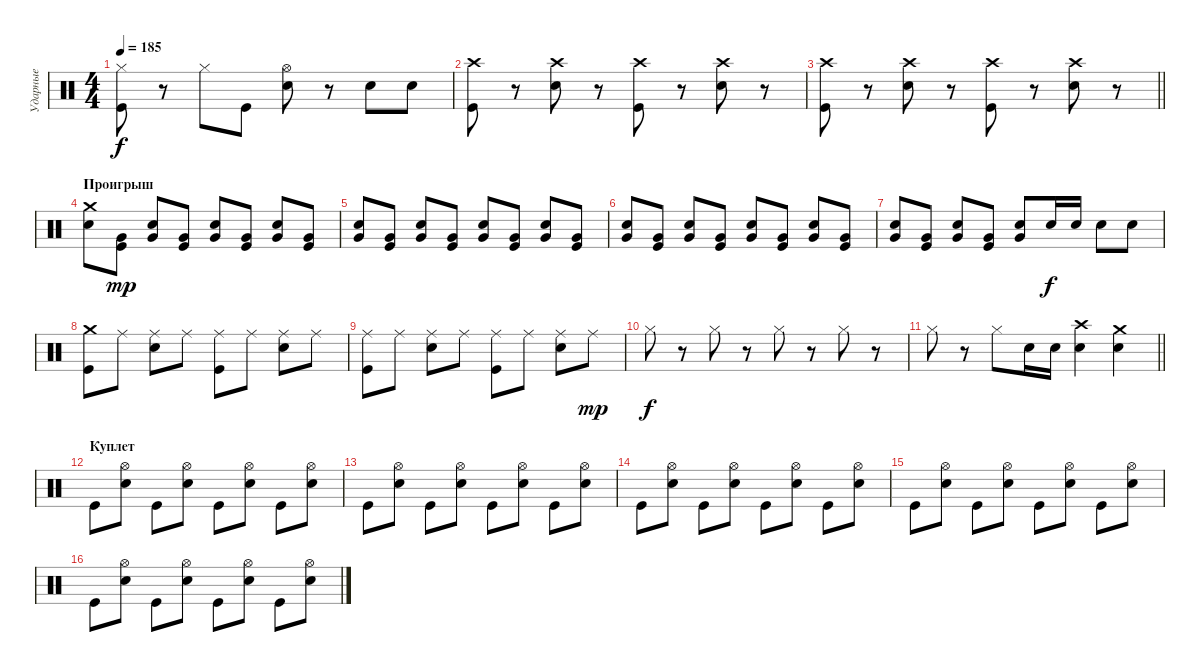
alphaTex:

\track ("Ударные" "Ударные") {instrument percussion}
\staff {score}
\articulation defaults
\ts (4 4)
\tempo 185
\clef neutral
\ks c
("Hi-Hat (closed)" "Kick (hit)").8{dy f} r.8 "Hi-Hat (closed)".8 "Kick (hit)".8 ("Hi-Hat (open)" "Electric Snare (hit)").8 r.8 "Electric Snare (hit)".8 "Electric Snare (hit)".8 |
("Crash high (hit)" "Kick (hit)").8 r.8 ("Crash high (hit)" "Electric Snare (hit)").8 r.8 ("Crash high (hit)" "Kick (hit)").8 r.8 ("Crash high (hit)" "Electric Snare (hit)").8 r.8 |
\barLineRight lightlight
("Crash high (hit)" "Kick (hit)").8 r.8 ("Crash high (hit)" "Electric Snare (hit)").8 r.8 ("Crash high (hit)" "Kick (hit)").8 r.8 ("Crash high (hit)" "Electric Snare (hit)").8 r.8 |
\section ("" "Проигрыш")
("Crash medium (hit)" "Electric Snare (hit)").8 ("Very Low Tom (hit)" "Kick (hit)").8{dy mp} ("Very Low Tom (hit)" "Electric Snare (hit)").8 ("Very Low Tom (hit)" "Kick (hit)").8 ("Very Low Tom (hit)" "Electric Snare (hit)").8 ("Very Low Tom (hit)" "Kick (hit)").8 ("Very Low Tom (hit)" "Electric Snare (hit)").8 ("Very Low Tom (hit)" "Kick (hit)").8 |
("Very Low Tom (hit)" "Electric Snare (hit)").8 ("Very Low Tom (hit)" "Kick (hit)").8 ("Very Low Tom (hit)" "Electric Snare (hit)").8 ("Very Low Tom (hit)" "Kick (hit)").8 ("Very Low Tom (hit)" "Electric Snare (hit)").8 ("Very Low Tom (hit)" "Kick (hit)").8 ("Very Low Tom (hit)" "Electric Snare (hit)").8 ("Very Low Tom (hit)" "Kick (hit)").8 |
("Very Low Tom (hit)" "Electric Snare (hit)").8 ("Very Low Tom (hit)" "Kick (hit)").8 ("Very Low Tom (hit)" "Electric Snare (hit)").8 ("Very Low Tom (hit)" "Kick (hit)").8 ("Very Low Tom (hit)" "Electric Snare (hit)").8 ("Very Low Tom (hit)" "Kick (hit)").8 ("Very Low Tom (hit)" "Electric Snare (hit)").8 ("Very Low Tom (hit)" "Kick (hit)").8 |
("Very Low Tom (hit)" "Electric Snare (hit)").8 ("Very Low Tom (hit)" "Kick (hit)").8 ("Very Low Tom (hit)" "Electric Snare (hit)").8 ("Very Low Tom (hit)" "Kick (hit)").8 ("Very Low Tom (hit)" "Electric Snare (hit)").8 "Electric Snare (hit)".16{dy f} "Electric Snare (hit)".16 "Electric Snare (hit)".8 "Electric Snare (hit)".8 |
("Crash medium (hit)" "Kick (hit)").8 "Ride (middle)".8 ("Ride (middle)" "Electric Snare (hit)").8 "Ride (middle)".8 ("Ride (middle)" "Kick (hit)").8 "Ride (middle)".8 ("Ride (middle)" "Electric Snare (hit)").8 "Ride (middle)".8 |
("Ride (middle)" "Kick (hit)").8 "Ride (middle)".8 ("Ride (middle)" "Electric Snare (hit)").8 "Ride (middle)".8 ("Ride (middle)" "Kick (hit)").8 "Ride (middle)".8 ("Ride (middle)" "Electric Snare (hit)").8 "Ride (middle)".8{dy mp} |
"Hi-Hat (closed)".8{dy f} r.8 "Hi-Hat (closed)".8 r.8 "Hi-Hat (closed)".8 r.8 "Hi-Hat (closed)".8 r.8 |
\barLineRight lightlight "Hi-Hat (closed)".8
r.8 "Hi-Hat (closed)".8 "Electric Snare (hit)".16 "Electric Snare (hit)".16 ("Crash high (hit)" "Electric Snare (hit)").4 ("Crash medium (hit)" "Electric Snare (hit)").4 |
\section ("" "Куплет")
"Kick (hit)".8 ("Hi-Hat (open)" "Electric Snare (hit)").8 "Kick (hit)".8 ("Hi-Hat (open)" "Electric Snare (hit)").8 "Kick (hit)".8 ("Hi-Hat (open)" "Electric Snare (hit)").8 "Kick (hit)".8 ("Hi-Hat (open)" "Electric Snare (hit)").8 |
"Kick (hit)".8 ("Hi-Hat (open)" "Electric Snare (hit)").8 "Kick (hit)".8 ("Hi-Hat (open)" "Electric Snare (hit)").8 "Kick (hit)".8 ("Hi-Hat (open)" "Electric Snare (hit)").8 "Kick (hit)".8 ("Hi-Hat (open)" "Electric Snare (hit)").8 |
"Kick (hit)".8 ("Hi-Hat (open)" "Electric Snare (hit)").8 "Kick (hit)".8 ("Hi-Hat (open)" "Electric Snare (hit)").8 "Kick (hit)".8 ("Hi-Hat (open)" "Electric Snare (hit)").8 "Kick (hit)".8 ("Hi-Hat (open)" "Electric Snare (hit)").8 |
"Kick (hit)".8 ("Hi-Hat (open)" "Electric Snare (hit)").8 "Kick (hit)".8 ("Hi-Hat (open)" "Electric Snare (hit)").8 "Kick (hit)".8 ("Hi-Hat (open)" "Electric Snare (hit)").8 "Kick (hit)".8 ("Hi-Hat (open)" "Electric Snare (hit)").8 |
"Kick (hit)".8 ("Hi-Hat (open)" "Electric Snare (hit)").8 "Kick (hit)".8 ("Hi-Hat (open)" "Electric Snare (hit)").8 "Kick (hit)".8 ("Hi-Hat (open)" "Electric Snare (hit)").8 "Kick (hit)".8 ("Hi-Hat (open)" "Electric Snare (hit)").8
